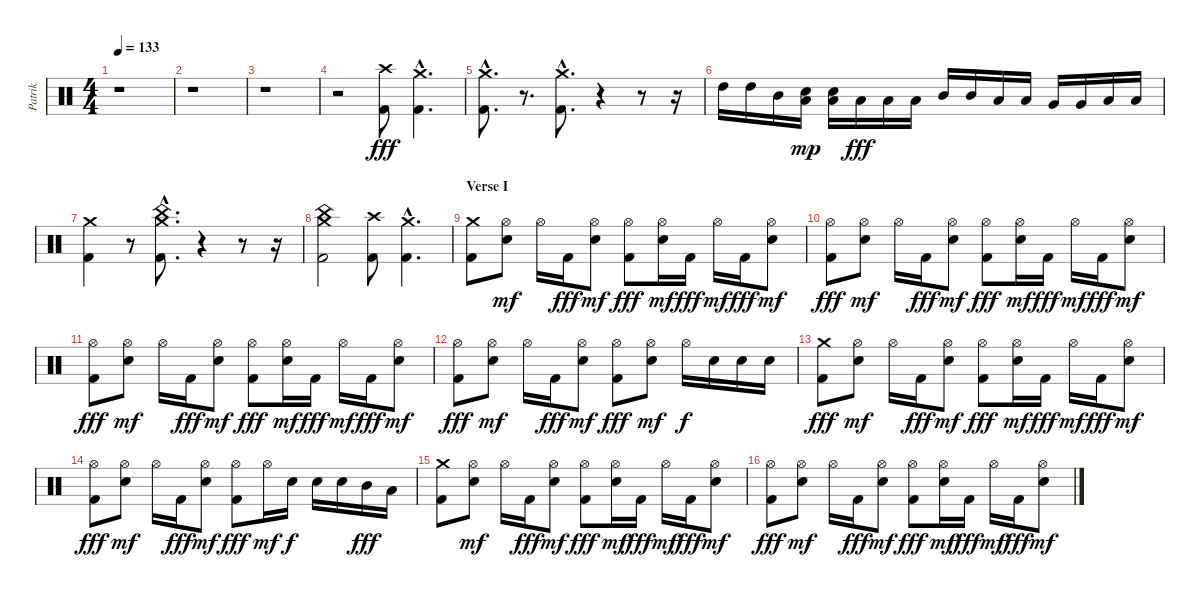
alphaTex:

\track ("Patrik" "Patrik") {instrument percussion}
\staff {score}
\articulation defaults
\ts (4 4)
\tempo 133
\clef neutral
\ks c
r.1{dy fff} |
r.1 |
r.1 |
r.2 ("Crash high (hit)" "Kick (hit) 2").8 ("Crash medium (hit)"{hac} "Kick (hit) 2"{hac}).4{d} |
("Crash medium (hit)"{hac} "Kick (hit) 2"{hac}).8{d} r.8{d volume 0} ("Crash medium (hit)"{hac} "Kick (hit) 2"{hac}).8{d volume 12} r.4{volume 0} r.8 r.16 |
"High Tom (hit)".16{volume 12} "High Tom (hit)".16 "Mid Tom (hit)".16 ("Low Tom (hit)" "Electric Snare (hit)").16{dy mp} ("Low Tom (hit)" "Electric Snare (hit)").16 "Low Tom (hit)".16{dy fff} "Low Tom (hit)".16 "Low Tom (hit)".16 "Mid Tom (hit)".16 "Mid Tom (hit)".16 "Low Tom (hit)".16 "Low Tom (hit)".16 "Very Low Tom (hit)".16 "Very Low Tom (hit)".16 "Low Floor Tom (hit)".16 "Low Floor Tom (hit)".16 |
("Crash medium (hit)" "Kick (hit) 2").4 r.8{volume 0} ("Crash medium (hit)"{hac} "China (hit)"{hac} "Kick (hit) 2"{hac}).8{d volume 12} r.4{volume 0} r.8 r.16 |
("Crash medium (hit)" "China (hit)" "Kick (hit) 2").2{volume 12} ("Crash high (hit)" "Kick (hit) 2").8 ("Crash medium (hit)"{hac} "Kick (hit) 2"{hac}).4{d} |
\section ("" "Verse I")
("Crash medium (hit)" "Kick (hit) 2").8 ("Hi-Hat (open)" "Electric Snare (hit)").8{dy mf} "Hi-Hat (open)".16 "Kick (hit) 2".16{dy fff} ("Hi-Hat (open)" "Electric Snare (hit)").8{dy mf} ("Hi-Hat (open)" "Kick (hit) 2").8{dy fff} ("Hi-Hat (open)" "Electric Snare (hit)").16{dy mf} "Kick (hit) 2".16{dy fff} "Hi-Hat (open)".16{dy mf} "Kick (hit) 2".16{dy fff} ("Hi-Hat (open)" "Electric Snare (hit)").8{dy mf} |
("Hi-Hat (open)" "Kick (hit) 2").8{dy fff} ("Hi-Hat (open)" "Electric Snare (hit)").8{dy mf} "Hi-Hat (open)".16 "Kick (hit) 2".16{dy fff} ("Hi-Hat (open)" "Electric Snare (hit)").8{dy mf} ("Hi-Hat (open)" "Kick (hit) 2").8{dy fff} ("Hi-Hat (open)" "Electric Snare (hit)").16{dy mf} "Kick (hit) 2".16{dy fff} "Hi-Hat (open)".16{dy mf} "Kick (hit) 2".16{dy fff} ("Hi-Hat (open)" "Electric Snare (hit)").8{dy mf} |
("Hi-Hat (open)" "Kick (hit) 2").8{dy fff} ("Hi-Hat (open)" "Electric Snare (hit)").8{dy mf} "Hi-Hat (open)".16 "Kick (hit) 2".16{dy fff} ("Hi-Hat (open)" "Electric Snare (hit)").8{dy mf} ("Hi-Hat (open)" "Kick (hit) 2").8{dy fff} ("Hi-Hat (open)" "Electric Snare (hit)").16{dy mf} "Kick (hit) 2".16{dy fff} "Hi-Hat (open)".16{dy mf} "Kick (hit) 2".16{dy fff} ("Hi-Hat (open)" "Electric Snare (hit)").8{dy mf} |
("Hi-Hat (open)" "Kick (hit) 2").8{dy fff} ("Hi-Hat (open)" "Electric Snare (hit)").8{dy mf} "Hi-Hat (open)".16 "Kick (hit) 2".16{dy fff} ("Hi-Hat (open)" "Electric Snare (hit)").8{dy mf} ("Hi-Hat (open)" "Kick (hit) 2").8{dy fff} ("Hi-Hat (open)" "Electric Snare (hit)").8{dy mf} "Hi-Hat (open)".16{dy f} "Electric Snare (hit)".16 "Electric Snare (hit)".16 "Electric Snare (hit)".16 |
("Crash medium (hit)" "Kick (hit) 2").8{dy fff} ("Hi-Hat (open)" "Electric Snare (hit)").8{dy mf} "Hi-Hat (open)".16 "Kick (hit) 2".16{dy fff} ("Hi-Hat (open)" "Electric Snare (hit)").8{dy mf} ("Hi-Hat (open)" "Kick (hit) 2").8{dy fff} ("Hi-Hat (open)" "Electric Snare (hit)").16{dy mf} "Kick (hit) 2".16{dy fff} "Hi-Hat (open)".16{dy mf} "Kick (hit) 2".16{dy fff} ("Hi-Hat (open)" "Electric Snare (hit)").8{dy mf} |
("Hi-Hat (open)" "Kick (hit) 2").8{dy fff} ("Hi-Hat (open)" "Electric Snare (hit)").8{dy mf} "Hi-Hat (open)".16 "Kick (hit) 2".16{dy fff} ("Hi-Hat (open)" "Electric Snare (hit)").8{dy mf} ("Hi-Hat (open)" "Kick (hit) 2").8{dy fff} "Hi-Hat (open)".16{dy mf} "Electric Snare (hit)".16{dy f} "Electric Snare (hit)".16 "Electric Snare (hit)".16 "Mid Tom (hit)".16{dy fff} "Low Tom (hit)".16 |
("Crash medium (hit)" "Kick (hit) 2").8 ("Hi-Hat (open)" "Electric Snare (hit)").8{dy mf} "Hi-Hat (open)".16 "Kick (hit) 2".16{dy fff} ("Hi-Hat (open)" "Electric Snare (hit)").8{dy mf} ("Hi-Hat (open)" "Kick (hit) 2").8{dy fff} ("Hi-Hat (open)" "Electric Snare (hit)").16{dy mf} "Kick (hit) 2".16{dy fff} "Hi-Hat (open)".16{dy mf} "Kick (hit) 2".16{dy fff} ("Hi-Hat (open)" "Electric Snare (hit)").8{dy mf} |
("Hi-Hat (open)" "Kick (hit) 2").8{dy fff} ("Hi-Hat (open)" "Electric Snare (hit)").8{dy mf} "Hi-Hat (open)".16 "Kick (hit) 2".16{dy fff} ("Hi-Hat (open)" "Electric Snare (hit)").8{dy mf} ("Hi-Hat (open)" "Kick (hit) 2").8{dy fff} ("Hi-Hat (open)" "Electric Snare (hit)").16{dy mf} "Kick (hit) 2".16{dy fff} "Hi-Hat (open)".16{dy mf} "Kick (hit) 2".16{dy fff} ("Hi-Hat (open)" "Electric Snare (hit)").8{dy mf}
